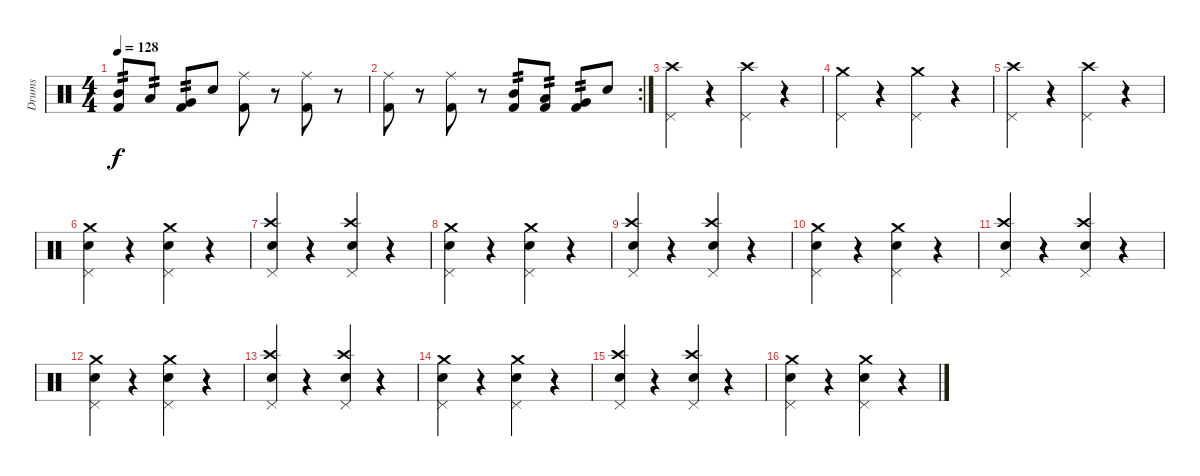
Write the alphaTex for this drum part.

\track ("Drums" "Drums") {instrument percussion}
\staff {score}
\articulation defaults
\ts (4 4)
\tempo 128
\clef neutral
\ks c
("Mid Tom (hit)" "Kick (hit) 2").8{tp 2 dy f} "Low Tom (hit)".8{tp 2} ("Very Low Tom (hit)" "Kick (hit) 2").8{tp 2} "Electric Snare (hit)".8 ("Ride (middle)" "Kick (hit) 2").8 r.8 ("Ride (middle)" "Kick (hit) 2").8 r.8 |
\rc 2
("Ride (middle)" "Kick (hit) 2").8 r.8 ("Ride (middle)" "Kick (hit) 2").8 r.8 ("Mid Tom (hit)" "Kick (hit) 2").8{tp 2} ("Low Tom (hit)" "Kick (hit) 2").8{tp 2} ("Very Low Tom (hit)" "Kick (hit) 2").8{tp 2} "Electric Snare (hit)".8 |
("Crash high (hit)" "Pedal Hi-Hat (hit)").4 r.4 ("Crash high (hit)" "Pedal Hi-Hat (hit)").4 r.4 |
("Crash medium (hit)" "Pedal Hi-Hat (hit)").4 r.4 ("Crash medium (hit)" "Pedal Hi-Hat (hit)").4 r.4 |
("Crash high (hit)" "Pedal Hi-Hat (hit)").4 r.4 ("Crash high (hit)" "Pedal Hi-Hat (hit)").4 r.4 |
("Crash medium (hit)" "Pedal Hi-Hat (hit)" "Electric Snare (hit)").4 r.4 ("Crash medium (hit)" "Pedal Hi-Hat (hit)" "Electric Snare (hit)").4 r.4 |
("Crash high (hit)" "Pedal Hi-Hat (hit)" "Electric Snare (hit)").4 r.4 ("Crash high (hit)" "Pedal Hi-Hat (hit)" "Electric Snare (hit)").4 r.4 |
("Crash medium (hit)" "Pedal Hi-Hat (hit)" "Electric Snare (hit)").4 r.4 ("Crash medium (hit)" "Pedal Hi-Hat (hit)" "Electric Snare (hit)").4 r.4 |
("Crash high (hit)" "Pedal Hi-Hat (hit)" "Electric Snare (hit)").4 r.4 ("Crash high (hit)" "Pedal Hi-Hat (hit)" "Electric Snare (hit)").4 r.4 |
("Crash medium (hit)" "Pedal Hi-Hat (hit)" "Electric Snare (hit)").4 r.4 ("Crash medium (hit)" "Pedal Hi-Hat (hit)" "Electric Snare (hit)").4 r.4 |
("Crash high (hit)" "Pedal Hi-Hat (hit)" "Electric Snare (hit)").4 r.4 ("Crash high (hit)" "Pedal Hi-Hat (hit)" "Electric Snare (hit)").4 r.4 |
("Crash medium (hit)" "Pedal Hi-Hat (hit)" "Electric Snare (hit)").4 r.4 ("Crash medium (hit)" "Pedal Hi-Hat (hit)" "Electric Snare (hit)").4 r.4 |
("Crash high (hit)" "Pedal Hi-Hat (hit)" "Electric Snare (hit)").4 r.4 ("Crash high (hit)" "Pedal Hi-Hat (hit)" "Electric Snare (hit)").4 r.4 |
("Crash medium (hit)" "Pedal Hi-Hat (hit)" "Electric Snare (hit)").4 r.4 ("Crash medium (hit)" "Pedal Hi-Hat (hit)" "Electric Snare (hit)").4 r.4 |
("Crash high (hit)" "Pedal Hi-Hat (hit)" "Electric Snare (hit)").4 r.4 ("Crash high (hit)" "Pedal Hi-Hat (hit)" "Electric Snare (hit)").4 r.4 |
("Crash medium (hit)" "Pedal Hi-Hat (hit)" "Electric Snare (hit)").4 r.4 ("Crash medium (hit)" "Pedal Hi-Hat (hit)" "Electric Snare (hit)").4 r.4
